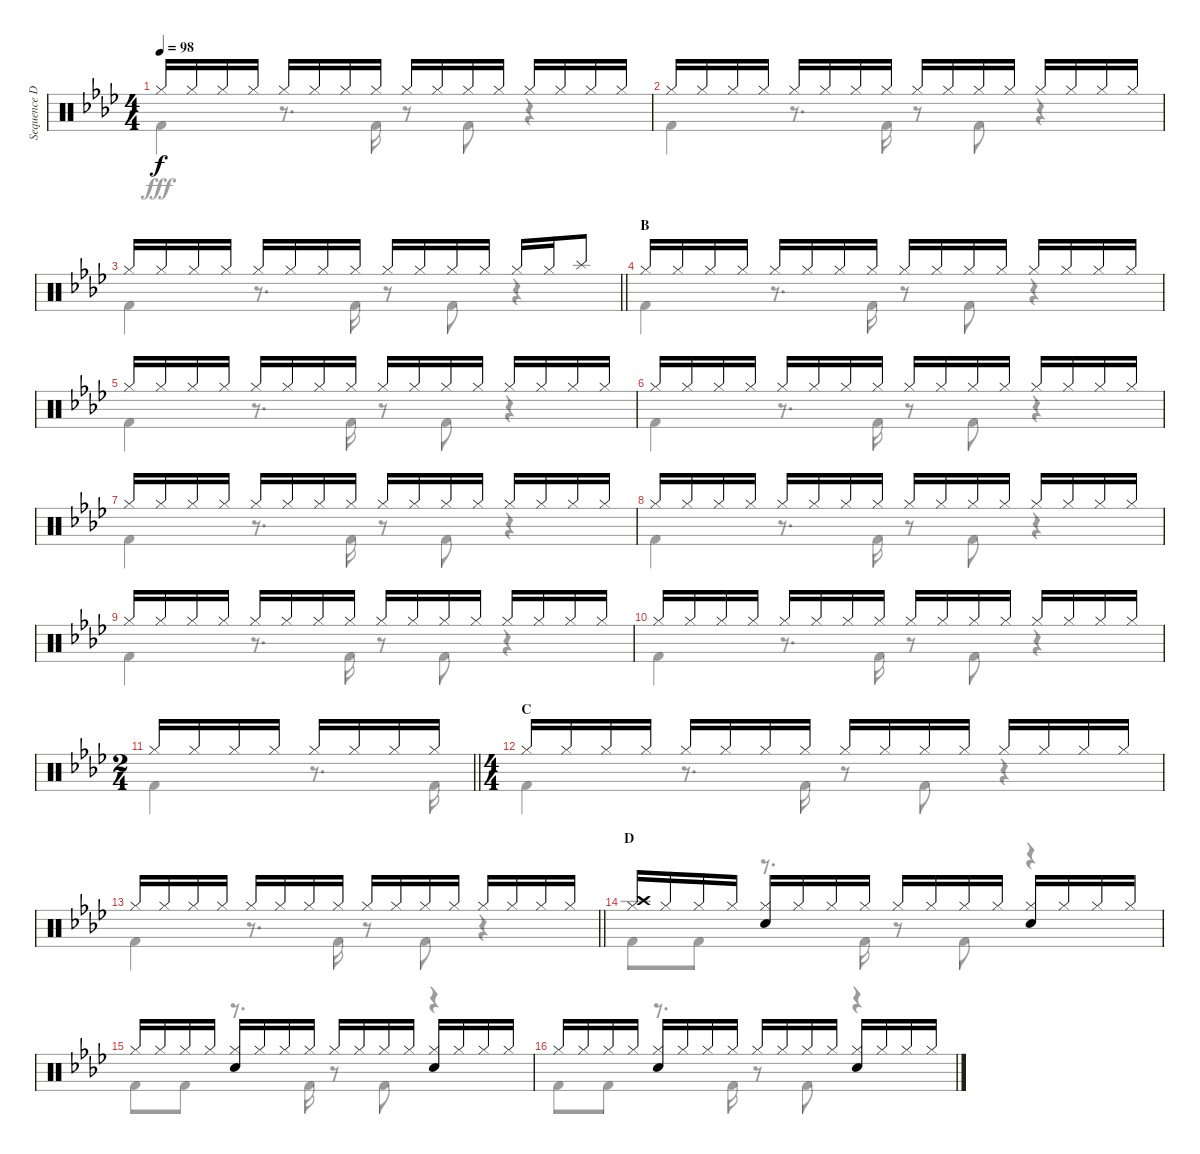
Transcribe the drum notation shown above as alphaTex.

\track ("Sequence Drums I" "Sequence D") {instrument percussion}
\staff {score}
\articulation defaults
\voice
\ts (4 4)
\tempo 98
\clef neutral
\ks ab "Hi-Hat (closed)".16{dy f} "Hi-Hat (closed)".16 "Hi-Hat (closed)".16 "Hi-Hat (closed)".16 "Hi-Hat (closed)".16 "Hi-Hat (closed)".16 "Hi-Hat (closed)".16 "Hi-Hat (closed)".16 "Hi-Hat (closed)".16 "Hi-Hat (closed)".16 "Hi-Hat (closed)".16 "Hi-Hat (closed)".16 "Hi-Hat (closed)".16 "Hi-Hat (closed)".16 "Hi-Hat (closed)".16 "Hi-Hat (closed)".16
|
"Hi-Hat (closed)".16 "Hi-Hat (closed)".16 "Hi-Hat (closed)".16 "Hi-Hat (closed)".16 "Hi-Hat (closed)".16 "Hi-Hat (closed)".16 "Hi-Hat (closed)".16 "Hi-Hat (closed)".16 "Hi-Hat (closed)".16 "Hi-Hat (closed)".16 "Hi-Hat (closed)".16 "Hi-Hat (closed)".16 "Hi-Hat (closed)".16 "Hi-Hat (closed)".16 "Hi-Hat (closed)".16 "Hi-Hat (closed)".16 |
\barLineRight lightlight "Hi-Hat (closed)".16 "Hi-Hat (closed)".16 "Hi-Hat (closed)".16 "Hi-Hat (closed)".16 "Hi-Hat (closed)".16 "Hi-Hat (closed)".16 "Hi-Hat (closed)".16 "Hi-Hat (closed)".16 "Hi-Hat (closed)".16 "Hi-Hat (closed)".16 "Hi-Hat (closed)".16 "Hi-Hat (closed)".16 "Hi-Hat (closed)".16 "Hi-Hat (closed)".16 "Splash (hit)".8
|
\section ("" "B")
"Hi-Hat (closed)".16 "Hi-Hat (closed)".16 "Hi-Hat (closed)".16 "Hi-Hat (closed)".16 "Hi-Hat (closed)".16 "Hi-Hat (closed)".16 "Hi-Hat (closed)".16 "Hi-Hat (closed)".16 "Hi-Hat (closed)".16 "Hi-Hat (closed)".16 "Hi-Hat (closed)".16 "Hi-Hat (closed)".16 "Hi-Hat (closed)".16 "Hi-Hat (closed)".16 "Hi-Hat (closed)".16 "Hi-Hat (closed)".16 |
"Hi-Hat (closed)".16 "Hi-Hat (closed)".16 "Hi-Hat (closed)".16 "Hi-Hat (closed)".16 "Hi-Hat (closed)".16 "Hi-Hat (closed)".16 "Hi-Hat (closed)".16 "Hi-Hat (closed)".16 "Hi-Hat (closed)".16 "Hi-Hat (closed)".16 "Hi-Hat (closed)".16 "Hi-Hat (closed)".16 "Hi-Hat (closed)".16 "Hi-Hat (closed)".16 "Hi-Hat (closed)".16 "Hi-Hat (closed)".16 |
"Hi-Hat (closed)".16 "Hi-Hat (closed)".16 "Hi-Hat (closed)".16 "Hi-Hat (closed)".16 "Hi-Hat (closed)".16 "Hi-Hat (closed)".16 "Hi-Hat (closed)".16 "Hi-Hat (closed)".16 "Hi-Hat (closed)".16 "Hi-Hat (closed)".16 "Hi-Hat (closed)".16 "Hi-Hat (closed)".16 "Hi-Hat (closed)".16 "Hi-Hat (closed)".16 "Hi-Hat (closed)".16 "Hi-Hat (closed)".16 |
"Hi-Hat (closed)".16 "Hi-Hat (closed)".16 "Hi-Hat (closed)".16 "Hi-Hat (closed)".16 "Hi-Hat (closed)".16 "Hi-Hat (closed)".16 "Hi-Hat (closed)".16 "Hi-Hat (closed)".16 "Hi-Hat (closed)".16 "Hi-Hat (closed)".16 "Hi-Hat (closed)".16 "Hi-Hat (closed)".16 "Hi-Hat (closed)".16 "Hi-Hat (closed)".16 "Hi-Hat (closed)".16 "Hi-Hat (closed)".16 |
"Hi-Hat (closed)".16 "Hi-Hat (closed)".16 "Hi-Hat (closed)".16 "Hi-Hat (closed)".16 "Hi-Hat (closed)".16 "Hi-Hat (closed)".16 "Hi-Hat (closed)".16 "Hi-Hat (closed)".16 "Hi-Hat (closed)".16 "Hi-Hat (closed)".16 "Hi-Hat (closed)".16 "Hi-Hat (closed)".16 "Hi-Hat (closed)".16 "Hi-Hat (closed)".16 "Hi-Hat (closed)".16 "Hi-Hat (closed)".16 |
"Hi-Hat (closed)".16 "Hi-Hat (closed)".16 "Hi-Hat (closed)".16 "Hi-Hat (closed)".16 "Hi-Hat (closed)".16 "Hi-Hat (closed)".16 "Hi-Hat (closed)".16 "Hi-Hat (closed)".16 "Hi-Hat (closed)".16 "Hi-Hat (closed)".16 "Hi-Hat (closed)".16 "Hi-Hat (closed)".16 "Hi-Hat (closed)".16 "Hi-Hat (closed)".16 "Hi-Hat (closed)".16 "Hi-Hat (closed)".16 |
"Hi-Hat (closed)".16 "Hi-Hat (closed)".16 "Hi-Hat (closed)".16 "Hi-Hat (closed)".16 "Hi-Hat (closed)".16 "Hi-Hat (closed)".16 "Hi-Hat (closed)".16 "Hi-Hat (closed)".16 "Hi-Hat (closed)".16 "Hi-Hat (closed)".16 "Hi-Hat (closed)".16 "Hi-Hat (closed)".16 "Hi-Hat (closed)".16 "Hi-Hat (closed)".16 "Hi-Hat (closed)".16 "Hi-Hat (closed)".16 |
\ts (2 4)
\barLineRight lightlight "Hi-Hat (closed)".16 "Hi-Hat (closed)".16 "Hi-Hat (closed)".16 "Hi-Hat (closed)".16 "Hi-Hat (closed)".16 "Hi-Hat (closed)".16 "Hi-Hat (closed)".16 "Hi-Hat (closed)".16
|
\ts (4 4)
\section ("" "C")
"Hi-Hat (closed)".16 "Hi-Hat (closed)".16 "Hi-Hat (closed)".16 "Hi-Hat (closed)".16 "Hi-Hat (closed)".16 "Hi-Hat (closed)".16 "Hi-Hat (closed)".16 "Hi-Hat (closed)".16 "Hi-Hat (closed)".16 "Hi-Hat (closed)".16 "Hi-Hat (closed)".16 "Hi-Hat (closed)".16 "Hi-Hat (closed)".16 "Hi-Hat (closed)".16 "Hi-Hat (closed)".16 "Hi-Hat (closed)".16 |
\barLineRight lightlight "Hi-Hat (closed)".16 "Hi-Hat (closed)".16 "Hi-Hat (closed)".16 "Hi-Hat (closed)".16 "Hi-Hat (closed)".16 "Hi-Hat (closed)".16 "Hi-Hat (closed)".16 "Hi-Hat (closed)".16 "Hi-Hat (closed)".16 "Hi-Hat (closed)".16 "Hi-Hat (closed)".16 "Hi-Hat (closed)".16 "Hi-Hat (closed)".16 "Hi-Hat (closed)".16 "Hi-Hat (closed)".16 "Hi-Hat (closed)".16
|
\section ("" "D")
("Crash high (hit)" "Hi-Hat (closed)").16 "Hi-Hat (closed)".16 "Hi-Hat (closed)".16 "Hi-Hat (closed)".16 ("Hi-Hat (closed)" "Electric Snare (hit)").16 "Hi-Hat (closed)".16 "Hi-Hat (closed)".16 "Hi-Hat (closed)".16 "Hi-Hat (closed)".16 "Hi-Hat (closed)".16 "Hi-Hat (closed)".16 "Hi-Hat (closed)".16 ("Hi-Hat (closed)" "Electric Snare (hit)").16 "Hi-Hat (closed)".16 "Hi-Hat (closed)".16 "Hi-Hat (closed)".16 |
"Hi-Hat (closed)".16 "Hi-Hat (closed)".16 "Hi-Hat (closed)".16 "Hi-Hat (closed)".16 ("Hi-Hat (closed)" "Electric Snare (hit)").16 "Hi-Hat (closed)".16 "Hi-Hat (closed)".16 "Hi-Hat (closed)".16 "Hi-Hat (closed)".16 "Hi-Hat (closed)".16 "Hi-Hat (closed)".16 "Hi-Hat (closed)".16 ("Hi-Hat (closed)" "Electric Snare (hit)").16 "Hi-Hat (closed)".16 "Hi-Hat (closed)".16 "Hi-Hat (closed)".16 |
"Hi-Hat (closed)".16 "Hi-Hat (closed)".16 "Hi-Hat (closed)".16 "Hi-Hat (closed)".16 ("Hi-Hat (closed)" "Electric Snare (hit)").16 "Hi-Hat (closed)".16 "Hi-Hat (closed)".16 "Hi-Hat (closed)".16 "Hi-Hat (closed)".16 "Hi-Hat (closed)".16 "Hi-Hat (closed)".16 "Hi-Hat (closed)".16 ("Hi-Hat (closed)" "Electric Snare (hit)").16 "Hi-Hat (closed)".16 "Hi-Hat (closed)".16 "Hi-Hat (closed)".16
\voice
\clef neutral
\ottava regular
\simile none
\ks ab "Kick (hit) 2".4{dy fff}
r.8{d} "Kick (hit) 2".16 r.8 "Kick (hit) 2".8 r.4 |
"Kick (hit) 2".4 r.8{d} "Kick (hit) 2".16 r.8 "Kick (hit) 2".8 r.4 |
\barLineRight lightlight "Kick (hit) 2".4
r.8{d} "Kick (hit) 2".16 r.8 "Kick (hit) 2".8 r.4 |
"Kick (hit) 2".4 r.8{d} "Kick (hit) 2".16 r.8 "Kick (hit) 2".8 r.4 |
"Kick (hit) 2".4 r.8{d} "Kick (hit) 2".16 r.8 "Kick (hit) 2".8 r.4 |
"Kick (hit) 2".4 r.8{d} "Kick (hit) 2".16 r.8 "Kick (hit) 2".8 r.4 |
"Kick (hit) 2".4 r.8{d} "Kick (hit) 2".16 r.8 "Kick (hit) 2".8 r.4 |
"Kick (hit) 2".4 r.8{d} "Kick (hit) 2".16 r.8 "Kick (hit) 2".8 r.4 |
"Kick (hit) 2".4 r.8{d} "Kick (hit) 2".16 r.8 "Kick (hit) 2".8 r.4 |
"Kick (hit) 2".4 r.8{d} "Kick (hit) 2".16 r.8 "Kick (hit) 2".8 r.4 |
\barLineRight lightlight "Kick (hit) 2".4
r.8{d} "Kick (hit) 2".16 |
"Kick (hit) 2".4 r.8{d} "Kick (hit) 2".16 r.8 "Kick (hit) 2".8 r.4 |
\barLineRight lightlight "Kick (hit) 2".4
r.8{d} "Kick (hit) 2".16 r.8 "Kick (hit) 2".8 r.4 |
"Kick (hit) 2".8 "Kick (hit) 2".8 r.8{d} "Kick (hit) 2".16 r.8 "Kick (hit) 2".8 r.4 |
"Kick (hit) 2".8 "Kick (hit) 2".8 r.8{d} "Kick (hit) 2".16 r.8 "Kick (hit) 2".8 r.4 |
"Kick (hit) 2".8 "Kick (hit) 2".8 r.8{d} "Kick (hit) 2".16 r.8 "Kick (hit) 2".8 r.4
